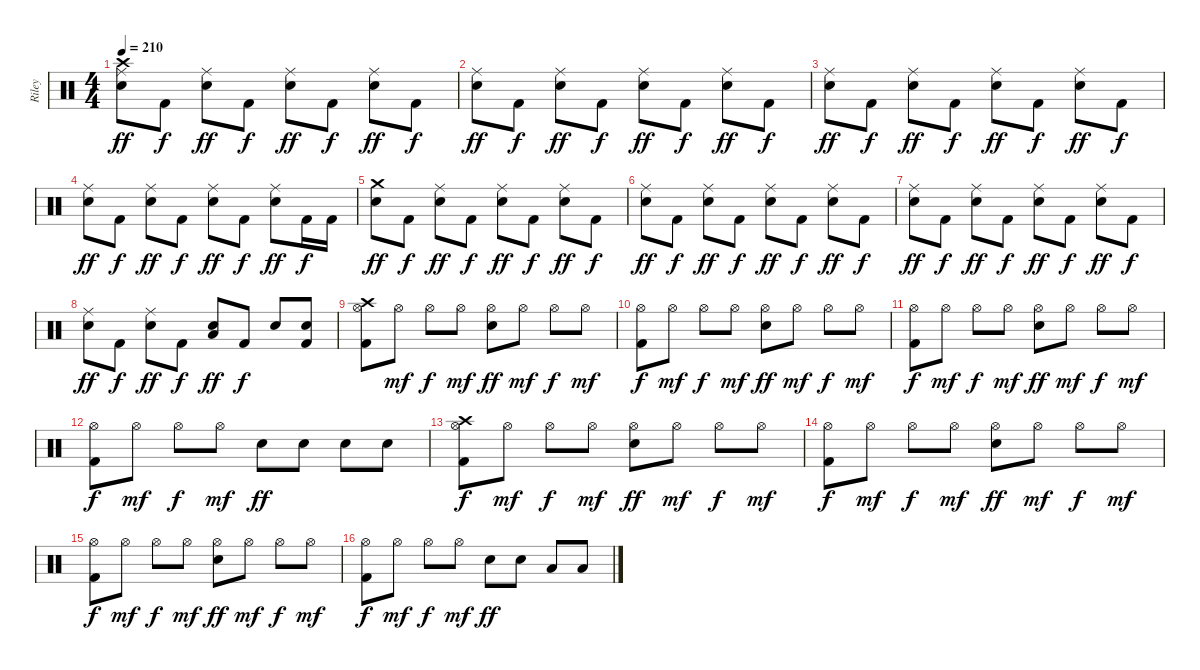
\track ("Riley" "Riley") {instrument percussion}
\staff {score}
\articulation defaults
\ts (4 4)
\tempo 210
\clef neutral
\ks c
("Crash high (hit)" "Ride (middle)" "Electric Snare (hit)").8{dy ff} "Kick (hit) 2".8{dy f} ("Ride (middle)" "Electric Snare (hit)").8{dy ff} "Kick (hit) 2".8{dy f} ("Ride (middle)" "Electric Snare (hit)").8{dy ff} "Kick (hit) 2".8{dy f} ("Ride (middle)" "Electric Snare (hit)").8{dy ff} "Kick (hit) 2".8{dy f} |
("Ride (middle)" "Electric Snare (hit)").8{dy ff} "Kick (hit) 2".8{dy f} ("Ride (middle)" "Electric Snare (hit)").8{dy ff} "Kick (hit) 2".8{dy f} ("Ride (middle)" "Electric Snare (hit)").8{dy ff} "Kick (hit) 2".8{dy f} ("Ride (middle)" "Electric Snare (hit)").8{dy ff} "Kick (hit) 2".8{dy f} |
("Ride (middle)" "Electric Snare (hit)").8{dy ff} "Kick (hit) 2".8{dy f} ("Ride (middle)" "Electric Snare (hit)").8{dy ff} "Kick (hit) 2".8{dy f} ("Ride (middle)" "Electric Snare (hit)").8{dy ff} "Kick (hit) 2".8{dy f} ("Ride (middle)" "Electric Snare (hit)").8{dy ff} "Kick (hit) 2".8{dy f} |
("Ride (middle)" "Electric Snare (hit)").8{dy ff} "Kick (hit) 2".8{dy f} ("Ride (middle)" "Electric Snare (hit)").8{dy ff} "Kick (hit) 2".8{dy f} ("Ride (middle)" "Electric Snare (hit)").8{dy ff} "Kick (hit) 2".8{dy f} ("Ride (middle)" "Electric Snare (hit)").8{dy ff} "Kick (hit) 2".16{dy f} "Kick (hit) 2".16 |
("Crash medium (hit)" "Electric Snare (hit)").8{dy ff} "Kick (hit) 2".8{dy f} ("Ride (middle)" "Electric Snare (hit)").8{dy ff} "Kick (hit) 2".8{dy f} ("Ride (middle)" "Electric Snare (hit)").8{dy ff} "Kick (hit) 2".8{dy f} ("Ride (middle)" "Electric Snare (hit)").8{dy ff} "Kick (hit) 2".8{dy f} |
("Ride (middle)" "Electric Snare (hit)").8{dy ff} "Kick (hit) 2".8{dy f} ("Ride (middle)" "Electric Snare (hit)").8{dy ff} "Kick (hit) 2".8{dy f} ("Ride (middle)" "Electric Snare (hit)").8{dy ff} "Kick (hit) 2".8{dy f} ("Ride (middle)" "Electric Snare (hit)").8{dy ff} "Kick (hit) 2".8{dy f} |
("Ride (middle)" "Electric Snare (hit)").8{dy ff} "Kick (hit) 2".8{dy f} ("Ride (middle)" "Electric Snare (hit)").8{dy ff} "Kick (hit) 2".8{dy f} ("Ride (middle)" "Electric Snare (hit)").8{dy ff} "Kick (hit) 2".8{dy f} ("Ride (middle)" "Electric Snare (hit)").8{dy ff} "Kick (hit) 2".8{dy f} |
("Ride (middle)" "Electric Snare (hit)").8{dy ff} "Kick (hit) 2".8{dy f} ("Ride (middle)" "Electric Snare (hit)").8{dy ff} "Kick (hit) 2".8{dy f} ("Low Tom (hit)" "Electric Snare (hit)").8{dy ff} "Kick (hit) 2".8{dy f} "Electric Snare (hit)".8 ("Electric Snare (hit)" "Kick (hit) 2").8 |
("Crash high (hit)" "Hi-Hat (open)" "Kick (hit) 2").8 "Hi-Hat (open)".8{dy mf} "Hi-Hat (open)".8{dy f} "Hi-Hat (open)".8{dy mf} ("Hi-Hat (open)" "Electric Snare (hit)").8{dy ff} "Hi-Hat (open)".8{dy mf} "Hi-Hat (open)".8{dy f} "Hi-Hat (open)".8{dy mf} |
("Hi-Hat (open)" "Kick (hit) 2").8{dy f} "Hi-Hat (open)".8{dy mf} "Hi-Hat (open)".8{dy f} "Hi-Hat (open)".8{dy mf} ("Hi-Hat (open)" "Electric Snare (hit)").8{dy ff} "Hi-Hat (open)".8{dy mf} "Hi-Hat (open)".8{dy f} "Hi-Hat (open)".8{dy mf} |
("Hi-Hat (open)" "Kick (hit) 2").8{dy f} "Hi-Hat (open)".8{dy mf} "Hi-Hat (open)".8{dy f} "Hi-Hat (open)".8{dy mf} ("Hi-Hat (open)" "Electric Snare (hit)").8{dy ff} "Hi-Hat (open)".8{dy mf} "Hi-Hat (open)".8{dy f} "Hi-Hat (open)".8{dy mf} |
("Hi-Hat (open)" "Kick (hit) 2").8{dy f} "Hi-Hat (open)".8{dy mf} "Hi-Hat (open)".8{dy f} "Hi-Hat (open)".8{dy mf} "Electric Snare (hit)".8{dy ff} "Electric Snare (hit)".8 "Electric Snare (hit)".8 "Electric Snare (hit)".8 |
("Crash high (hit)" "Hi-Hat (open)" "Kick (hit) 2").8{dy f} "Hi-Hat (open)".8{dy mf} "Hi-Hat (open)".8{dy f} "Hi-Hat (open)".8{dy mf} ("Hi-Hat (open)" "Electric Snare (hit)").8{dy ff} "Hi-Hat (open)".8{dy mf} "Hi-Hat (open)".8{dy f} "Hi-Hat (open)".8{dy mf} |
("Hi-Hat (open)" "Kick (hit) 2").8{dy f} "Hi-Hat (open)".8{dy mf} "Hi-Hat (open)".8{dy f} "Hi-Hat (open)".8{dy mf} ("Hi-Hat (open)" "Electric Snare (hit)").8{dy ff} "Hi-Hat (open)".8{dy mf} "Hi-Hat (open)".8{dy f} "Hi-Hat (open)".8{dy mf} |
("Hi-Hat (open)" "Kick (hit) 2").8{dy f} "Hi-Hat (open)".8{dy mf} "Hi-Hat (open)".8{dy f} "Hi-Hat (open)".8{dy mf} ("Hi-Hat (open)" "Electric Snare (hit)").8{dy ff} "Hi-Hat (open)".8{dy mf} "Hi-Hat (open)".8{dy f} "Hi-Hat (open)".8{dy mf} |
("Hi-Hat (open)" "Kick (hit) 2").8{dy f} "Hi-Hat (open)".8{dy mf} "Hi-Hat (open)".8{dy f} "Hi-Hat (open)".8{dy mf} "Electric Snare (hit)".8{dy ff} "Electric Snare (hit)".8 "Low Tom (hit)".8 "Low Tom (hit)".8
